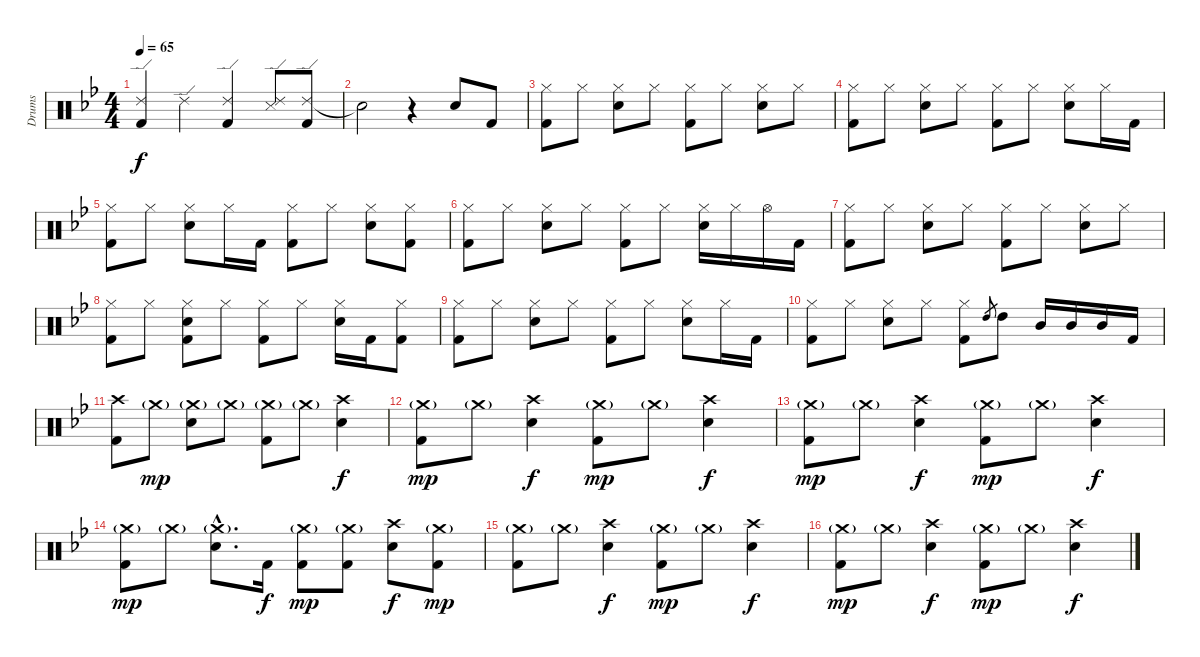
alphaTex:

\track ("Drums" "Drums") {instrument percussion}
\staff {score}
\articulation defaults
\ts (4 4)
\tempo 65
\clef neutral
\ks bb
("Ride (edge) 2" "Kick (hit) 2").4{dy f} "Ride (edge) 2".4 ("Ride (edge) 2" "Kick (hit) 2").4 ("Ride (edge) 2" "Snare (side stick) 3").8 ("Ride (edge) 2" "Kick (hit) 2").8 |
"Snare (hit)"{t}.2 r.4 "Electric Snare (hit)".8 "Kick (hit) 2".8 |
("Hi-Hat (closed)" "Kick (hit) 2").8 "Hi-Hat (closed)".8 ("Hi-Hat (closed)" "Electric Snare (hit)").8 "Hi-Hat (closed)".8 ("Hi-Hat (closed)" "Kick (hit) 2").8 "Hi-Hat (closed)".8 ("Hi-Hat (closed)" "Electric Snare (hit)").8 "Hi-Hat (closed)".8 |
("Hi-Hat (closed)" "Kick (hit) 2").8 "Hi-Hat (closed)".8 ("Hi-Hat (closed)" "Electric Snare (hit)").8 "Hi-Hat (closed)".8 ("Hi-Hat (closed)" "Kick (hit) 2").8 "Hi-Hat (closed)".8 ("Hi-Hat (closed)" "Electric Snare (hit)").8 "Hi-Hat (closed)".16 "Kick (hit) 2".16 |
("Hi-Hat (closed)" "Kick (hit) 2").8 "Hi-Hat (closed)".8 ("Hi-Hat (closed)" "Electric Snare (hit)").8 "Hi-Hat (closed)".16 "Kick (hit) 2".16 ("Hi-Hat (closed)" "Kick (hit) 2").8 "Hi-Hat (closed)".8 ("Hi-Hat (closed)" "Electric Snare (hit)").8 ("Hi-Hat (closed)" "Kick (hit) 2").8 |
("Hi-Hat (closed)" "Kick (hit) 2").8 "Hi-Hat (closed)".8 ("Hi-Hat (closed)" "Electric Snare (hit)").8 "Hi-Hat (closed)".8 ("Hi-Hat (closed)" "Kick (hit) 2").8 "Hi-Hat (closed)".8 ("Hi-Hat (closed)" "Electric Snare (hit)").16 "Hi-Hat (closed)".16 "Hi-Hat (open)".16 "Kick (hit) 2".16 |
("Hi-Hat (closed)" "Kick (hit) 2").8 "Hi-Hat (closed)".8 ("Hi-Hat (closed)" "Electric Snare (hit)").8 "Hi-Hat (closed)".8 ("Hi-Hat (closed)" "Kick (hit) 2").8 "Hi-Hat (closed)".8 ("Hi-Hat (closed)" "Electric Snare (hit)").8 "Hi-Hat (closed)".8 |
("Hi-Hat (closed)" "Kick (hit) 2").8 "Hi-Hat (closed)".8 ("Hi-Hat (closed)" "Electric Snare (hit)" "Kick (hit) 2").8 "Hi-Hat (closed)".8 ("Hi-Hat (closed)" "Kick (hit) 2").8 "Hi-Hat (closed)".8 ("Hi-Hat (closed)" "Electric Snare (hit)").16 "Kick (hit) 2".16 ("Hi-Hat (closed)" "Kick (hit) 2").8 |
("Hi-Hat (closed)" "Kick (hit) 2").8 "Hi-Hat (closed)".8 ("Hi-Hat (closed)" "Electric Snare (hit)").8 "Hi-Hat (closed)".8 ("Hi-Hat (closed)" "Kick (hit) 2").8 "Hi-Hat (closed)".8 ("Hi-Hat (closed)" "Electric Snare (hit)").8 "Hi-Hat (closed)".16 "Kick (hit) 2".16 |
("Hi-Hat (closed)" "Kick (hit) 2").8 "Hi-Hat (closed)".8 ("Hi-Hat (closed)" "Electric Snare (hit)").8 "Hi-Hat (closed)".8 ("Hi-Hat (closed)" "Kick (hit) 2").8 "High Tom (hit)".8{gr} "High Tom (hit)".8 "Mid Tom (hit)".16 "Mid Tom (hit)".16 "Mid Tom (hit)".16 "Kick (hit) 2".16 |
("Crash high (hit)" "Kick (hit) 2").8 "Crash medium (hit)"{g}.8{dy mp} ("Crash medium (hit)"{g} "Electric Snare (hit)").8 "Crash medium (hit)"{g}.8 ("Crash medium (hit)"{g} "Kick (hit) 2").8 "Crash medium (hit)"{g}.8 ("Crash high (hit)" "Electric Snare (hit)").4{dy f} |
("Crash medium (hit)"{g} "Kick (hit) 2").8{dy mp} "Crash medium (hit)"{g}.8 ("Crash high (hit)" "Electric Snare (hit)").4{dy f} ("Crash medium (hit)"{g} "Kick (hit) 2").8{dy mp} "Crash medium (hit)"{g}.8 ("Crash high (hit)" "Electric Snare (hit)").4{dy f} |
("Crash medium (hit)"{g} "Kick (hit) 2").8{dy mp} "Crash medium (hit)"{g}.8 ("Crash high (hit)" "Electric Snare (hit)").4{dy f} ("Crash medium (hit)"{g} "Kick (hit) 2").8{dy mp} "Crash medium (hit)"{g}.8 ("Crash high (hit)" "Electric Snare (hit)").4{dy f} |
("Crash medium (hit)"{g} "Kick (hit) 2").8{dy mp} "Crash medium (hit)"{g}.8 ("Crash medium (hit)"{g hac} "Electric Snare (hit)"{hac}).8{d} "Kick (hit) 2".16{dy f} ("Crash medium (hit)"{g} "Kick (hit) 2").8{dy mp} ("Crash medium (hit)"{g} "Kick (hit) 2").8 ("Crash high (hit)" "Electric Snare (hit)").8{dy f} ("Crash medium (hit)"{g} "Kick (hit) 2").8{dy mp} |
("Crash medium (hit)"{g} "Kick (hit) 2").8 "Crash medium (hit)"{g}.8 ("Crash high (hit)" "Electric Snare (hit)").4{dy f} ("Crash medium (hit)"{g} "Kick (hit) 2").8{dy mp} "Crash medium (hit)"{g}.8 ("Crash high (hit)" "Electric Snare (hit)").4{dy f} |
("Crash medium (hit)"{g} "Kick (hit) 2").8{dy mp} "Crash medium (hit)"{g}.8 ("Crash high (hit)" "Electric Snare (hit)").4{dy f} ("Crash medium (hit)"{g} "Kick (hit) 2").8{dy mp} "Crash medium (hit)"{g}.8 ("Crash high (hit)" "Electric Snare (hit)").4{dy f}
